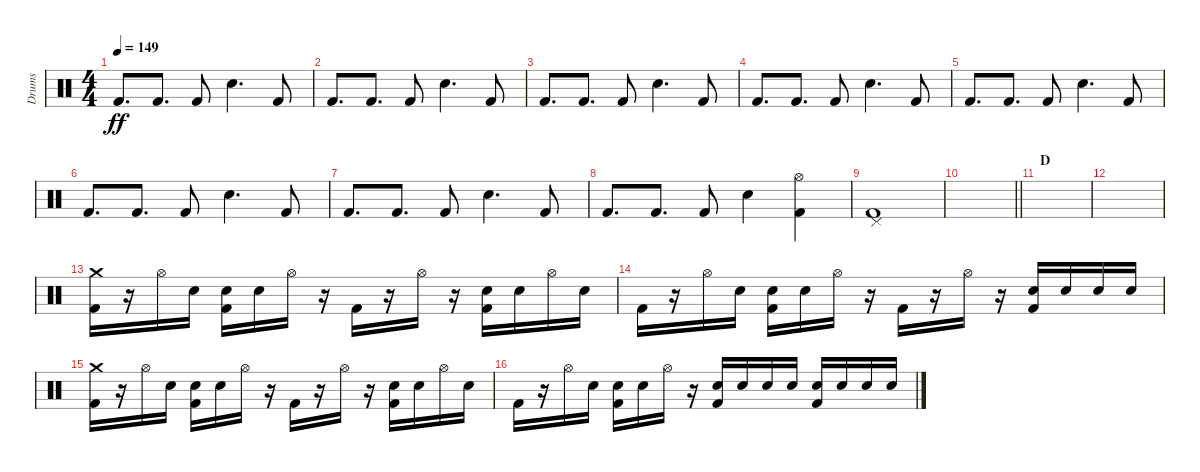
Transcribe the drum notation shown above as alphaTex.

\track ("Drums" "Drums") {instrument percussion}
\staff {score}
\articulation defaults
\ts (4 4)
\tempo 149
\clef neutral
\ks c "Kick (hit) 2".8{d dy ff} "Kick (hit) 2".8{d} "Kick (hit) 2".8 "Electric Snare (hit)".4{d} "Kick (hit) 2".8
|
"Kick (hit) 2".8{d} "Kick (hit) 2".8{d} "Kick (hit) 2".8 "Electric Snare (hit)".4{d} "Kick (hit) 2".8 |
"Kick (hit) 2".8{d} "Kick (hit) 2".8{d} "Kick (hit) 2".8 "Electric Snare (hit)".4{d} "Kick (hit) 2".8 |
"Kick (hit) 2".8{d} "Kick (hit) 2".8{d} "Kick (hit) 2".8 "Electric Snare (hit)".4{d} "Kick (hit) 2".8 |
"Kick (hit) 2".8{d} "Kick (hit) 2".8{d} "Kick (hit) 2".8 "Electric Snare (hit)".4{d} "Kick (hit) 2".8 |
"Kick (hit) 2".8{d} "Kick (hit) 2".8{d} "Kick (hit) 2".8 "Electric Snare (hit)".4{d} "Kick (hit) 2".8 |
"Kick (hit) 2".8{d} "Kick (hit) 2".8{d} "Kick (hit) 2".8 "Electric Snare (hit)".4{d} "Kick (hit) 2".8 |
"Kick (hit) 2".8{d} "Kick (hit) 2".8{d} "Kick (hit) 2".8 "Electric Snare (hit)".4 ("Hi-Hat (open)" "Kick (hit) 2").4 |
("Pedal Hi-Hat (hit)" "Kick (hit) 2").1 |
\barLineRight lightlight
|
\section ("" "D")
|
|
("Crash medium (hit)" "Kick (hit) 2").16 r.16 "Hi-Hat (open)".16 "Electric Snare (hit)".16 ("Electric Snare (hit)" "Kick (hit) 2").16 "Electric Snare (hit)".16 "Hi-Hat (open)".16 r.16 "Kick (hit) 2".16 r.16 "Hi-Hat (open)".16 r.16 ("Electric Snare (hit)" "Kick (hit) 2").16 "Electric Snare (hit)".16 "Hi-Hat (open)".16 "Electric Snare (hit)".16 |
"Kick (hit) 2".16 r.16 "Hi-Hat (open)".16 "Electric Snare (hit)".16 ("Electric Snare (hit)" "Kick (hit) 2").16 "Electric Snare (hit)".16 "Hi-Hat (open)".16 r.16 "Kick (hit) 2".16 r.16 "Hi-Hat (open)".16 r.16 ("Electric Snare (hit)" "Kick (hit) 2").16 "Electric Snare (hit)".16 "Electric Snare (hit)".16 "Electric Snare (hit)".16 |
("Crash medium (hit)" "Kick (hit) 2").16 r.16 "Hi-Hat (open)".16 "Electric Snare (hit)".16 ("Electric Snare (hit)" "Kick (hit) 2").16 "Electric Snare (hit)".16 "Hi-Hat (open)".16 r.16 "Kick (hit) 2".16 r.16 "Hi-Hat (open)".16 r.16 ("Electric Snare (hit)" "Kick (hit) 2").16 "Electric Snare (hit)".16 "Hi-Hat (open)".16 "Electric Snare (hit)".16 |
"Kick (hit) 2".16 r.16 "Hi-Hat (open)".16 "Electric Snare (hit)".16 ("Electric Snare (hit)" "Kick (hit) 2").16 "Electric Snare (hit)".16 "Hi-Hat (open)".16 r.16 ("Electric Snare (hit)" "Kick (hit) 2").16 "Electric Snare (hit)".16 "Electric Snare (hit)".16 "Electric Snare (hit)".16 ("Electric Snare (hit)" "Kick (hit) 2").16 "Electric Snare (hit)".16 "Electric Snare (hit)".16 "Electric Snare (hit)".16
